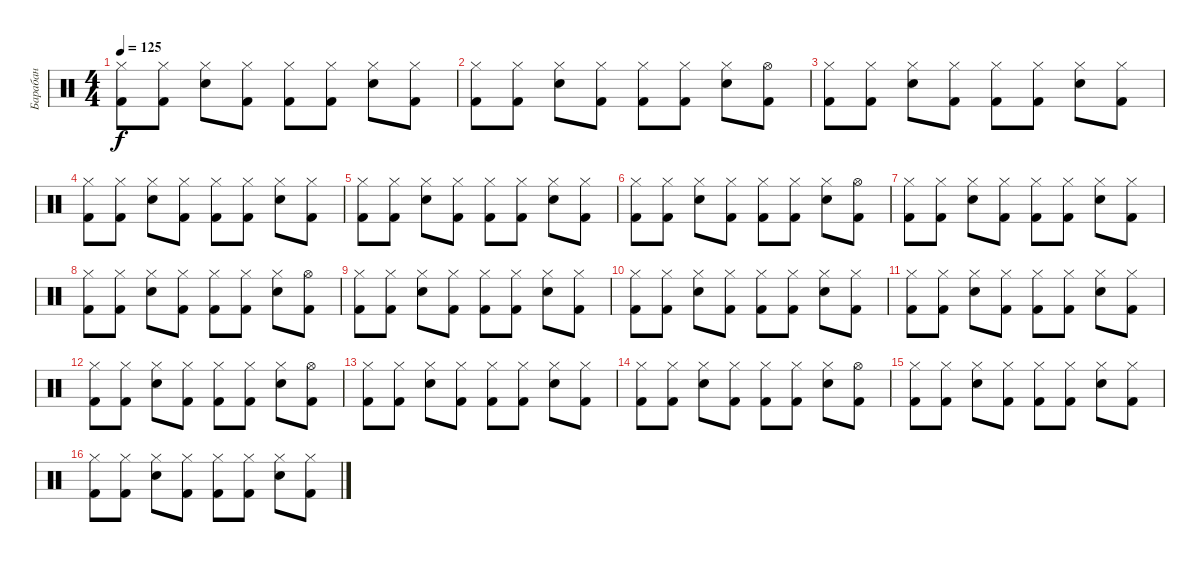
\track ("Барабан" "Барабан") {instrument percussion}
\staff {score}
\articulation defaults
\ts (4 4)
\tempo 125
\clef neutral
\ks c
("Kick (hit) 2" "Hi-Hat (closed)").8{dy f} ("Kick (hit) 2" "Hi-Hat (closed)").8 ("Electric Snare (hit)" "Hi-Hat (closed)").8 ("Kick (hit) 2" "Hi-Hat (closed)").8 ("Kick (hit) 2" "Hi-Hat (closed)").8 ("Kick (hit) 2" "Hi-Hat (closed)").8 ("Electric Snare (hit)" "Hi-Hat (closed)").8 ("Kick (hit) 2" "Hi-Hat (closed)").8 |
("Kick (hit) 2" "Hi-Hat (closed)").8 ("Kick (hit) 2" "Hi-Hat (closed)").8 ("Electric Snare (hit)" "Hi-Hat (closed)").8 ("Kick (hit) 2" "Hi-Hat (closed)").8 ("Kick (hit) 2" "Hi-Hat (closed)").8 ("Kick (hit) 2" "Hi-Hat (closed)").8 ("Electric Snare (hit)" "Hi-Hat (closed)").8 ("Kick (hit) 2" "Hi-Hat (open)").8 |
("Kick (hit) 2" "Hi-Hat (closed)").8 ("Kick (hit) 2" "Hi-Hat (closed)").8 ("Electric Snare (hit)" "Hi-Hat (closed)").8 ("Kick (hit) 2" "Hi-Hat (closed)").8 ("Kick (hit) 2" "Hi-Hat (closed)").8 ("Kick (hit) 2" "Hi-Hat (closed)").8 ("Electric Snare (hit)" "Hi-Hat (closed)").8 ("Kick (hit) 2" "Hi-Hat (closed)").8 |
("Kick (hit) 2" "Hi-Hat (closed)").8 ("Kick (hit) 2" "Hi-Hat (closed)").8 ("Electric Snare (hit)" "Hi-Hat (closed)").8 ("Kick (hit) 2" "Hi-Hat (closed)").8 ("Kick (hit) 2" "Hi-Hat (closed)").8 ("Kick (hit) 2" "Hi-Hat (closed)").8 ("Electric Snare (hit)" "Hi-Hat (closed)").8 ("Kick (hit) 2" "Hi-Hat (closed)").8 |
("Kick (hit) 2" "Hi-Hat (closed)").8 ("Kick (hit) 2" "Hi-Hat (closed)").8 ("Electric Snare (hit)" "Hi-Hat (closed)").8 ("Kick (hit) 2" "Hi-Hat (closed)").8 ("Kick (hit) 2" "Hi-Hat (closed)").8 ("Kick (hit) 2" "Hi-Hat (closed)").8 ("Electric Snare (hit)" "Hi-Hat (closed)").8 ("Kick (hit) 2" "Hi-Hat (closed)").8 |
("Kick (hit) 2" "Hi-Hat (closed)").8 ("Kick (hit) 2" "Hi-Hat (closed)").8 ("Electric Snare (hit)" "Hi-Hat (closed)").8 ("Kick (hit) 2" "Hi-Hat (closed)").8 ("Kick (hit) 2" "Hi-Hat (closed)").8 ("Kick (hit) 2" "Hi-Hat (closed)").8 ("Electric Snare (hit)" "Hi-Hat (closed)").8 ("Kick (hit) 2" "Hi-Hat (open)").8 |
("Kick (hit) 2" "Hi-Hat (closed)").8 ("Kick (hit) 2" "Hi-Hat (closed)").8 ("Electric Snare (hit)" "Hi-Hat (closed)").8 ("Kick (hit) 2" "Hi-Hat (closed)").8 ("Kick (hit) 2" "Hi-Hat (closed)").8 ("Kick (hit) 2" "Hi-Hat (closed)").8 ("Electric Snare (hit)" "Hi-Hat (closed)").8 ("Kick (hit) 2" "Hi-Hat (closed)").8 |
("Kick (hit) 2" "Hi-Hat (closed)").8 ("Kick (hit) 2" "Hi-Hat (closed)").8 ("Electric Snare (hit)" "Hi-Hat (closed)").8 ("Kick (hit) 2" "Hi-Hat (closed)").8 ("Kick (hit) 2" "Hi-Hat (closed)").8 ("Kick (hit) 2" "Hi-Hat (closed)").8 ("Electric Snare (hit)" "Hi-Hat (closed)").8 ("Kick (hit) 2" "Hi-Hat (open)").8 |
("Kick (hit) 2" "Hi-Hat (closed)").8 ("Kick (hit) 2" "Hi-Hat (closed)").8 ("Electric Snare (hit)" "Hi-Hat (closed)").8 ("Kick (hit) 2" "Hi-Hat (closed)").8 ("Kick (hit) 2" "Hi-Hat (closed)").8 ("Kick (hit) 2" "Hi-Hat (closed)").8 ("Electric Snare (hit)" "Hi-Hat (closed)").8 ("Kick (hit) 2" "Hi-Hat (closed)").8 |
("Kick (hit) 2" "Hi-Hat (closed)").8 ("Kick (hit) 2" "Hi-Hat (closed)").8 ("Electric Snare (hit)" "Hi-Hat (closed)").8 ("Kick (hit) 2" "Hi-Hat (closed)").8 ("Kick (hit) 2" "Hi-Hat (closed)").8 ("Kick (hit) 2" "Hi-Hat (closed)").8 ("Electric Snare (hit)" "Hi-Hat (closed)").8 ("Kick (hit) 2" "Hi-Hat (closed)").8 |
("Kick (hit) 2" "Hi-Hat (closed)").8 ("Kick (hit) 2" "Hi-Hat (closed)").8 ("Electric Snare (hit)" "Hi-Hat (closed)").8 ("Kick (hit) 2" "Hi-Hat (closed)").8 ("Kick (hit) 2" "Hi-Hat (closed)").8 ("Kick (hit) 2" "Hi-Hat (closed)").8 ("Electric Snare (hit)" "Hi-Hat (closed)").8 ("Kick (hit) 2" "Hi-Hat (closed)").8 |
("Kick (hit) 2" "Hi-Hat (closed)").8 ("Kick (hit) 2" "Hi-Hat (closed)").8 ("Electric Snare (hit)" "Hi-Hat (closed)").8 ("Kick (hit) 2" "Hi-Hat (closed)").8 ("Kick (hit) 2" "Hi-Hat (closed)").8 ("Kick (hit) 2" "Hi-Hat (closed)").8 ("Electric Snare (hit)" "Hi-Hat (closed)").8 ("Kick (hit) 2" "Hi-Hat (open)").8 |
("Kick (hit) 2" "Hi-Hat (closed)").8 ("Kick (hit) 2" "Hi-Hat (closed)").8 ("Electric Snare (hit)" "Hi-Hat (closed)").8 ("Kick (hit) 2" "Hi-Hat (closed)").8 ("Kick (hit) 2" "Hi-Hat (closed)").8 ("Kick (hit) 2" "Hi-Hat (closed)").8 ("Electric Snare (hit)" "Hi-Hat (closed)").8 ("Kick (hit) 2" "Hi-Hat (closed)").8 |
("Kick (hit) 2" "Hi-Hat (closed)").8 ("Kick (hit) 2" "Hi-Hat (closed)").8 ("Electric Snare (hit)" "Hi-Hat (closed)").8 ("Kick (hit) 2" "Hi-Hat (closed)").8 ("Kick (hit) 2" "Hi-Hat (closed)").8 ("Kick (hit) 2" "Hi-Hat (closed)").8 ("Electric Snare (hit)" "Hi-Hat (closed)").8 ("Kick (hit) 2" "Hi-Hat (open)").8 |
("Kick (hit) 2" "Hi-Hat (closed)").8 ("Kick (hit) 2" "Hi-Hat (closed)").8 ("Electric Snare (hit)" "Hi-Hat (closed)").8 ("Kick (hit) 2" "Hi-Hat (closed)").8 ("Kick (hit) 2" "Hi-Hat (closed)").8 ("Kick (hit) 2" "Hi-Hat (closed)").8 ("Electric Snare (hit)" "Hi-Hat (closed)").8 ("Kick (hit) 2" "Hi-Hat (closed)").8 |
("Kick (hit) 2" "Hi-Hat (closed)").8 ("Kick (hit) 2" "Hi-Hat (closed)").8 ("Electric Snare (hit)" "Hi-Hat (closed)").8 ("Kick (hit) 2" "Hi-Hat (closed)").8 ("Kick (hit) 2" "Hi-Hat (closed)").8 ("Kick (hit) 2" "Hi-Hat (closed)").8 ("Electric Snare (hit)" "Hi-Hat (closed)").8 ("Kick (hit) 2" "Hi-Hat (closed)").8
